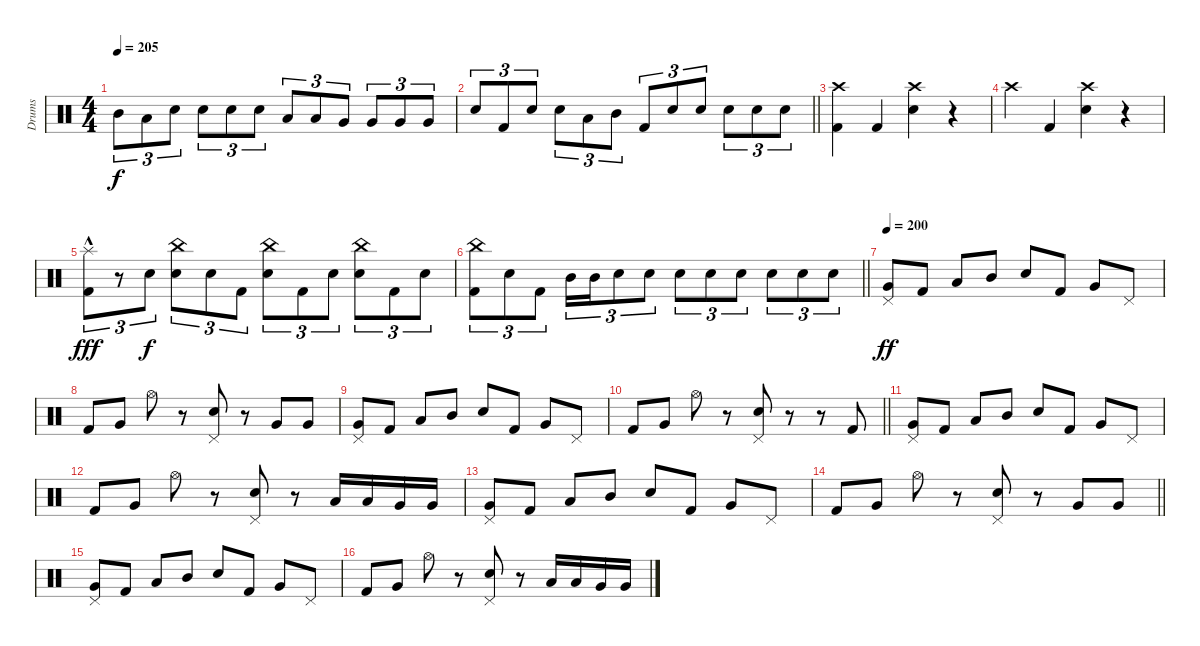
\track ("Drums" "Drums") {instrument percussion}
\staff {score}
\articulation defaults
\ts (4 4)
\tempo 205
\clef neutral
\ks c "Mid Tom (hit)".8{tu (3 2) dy f} "Low Tom (hit)".8{tu (3 2)} "Electric Snare (hit)".8{tu (3 2)} "Electric Snare (hit)".8{tu (3 2)} "Electric Snare (hit)".8{tu (3 2)} "Electric Snare (hit)".8{tu (3 2)} "Low Tom (hit)".8{tu (3 2)} "Low Tom (hit)".8{tu (3 2)} "Very Low Tom (hit)".8{tu (3 2)} "Very Low Tom (hit)".8{tu (3 2)} "Very Low Tom (hit)".8{tu (3 2)} "Very Low Tom (hit)".8{tu (3 2)}
|
\barLineRight lightlight "Electric Snare (hit)".8{tu (3 2)} "Kick (hit) 2".8{tu (3 2)} "Electric Snare (hit)".8{tu (3 2)} "Electric Snare (hit)".8{tu (3 2)} "Low Tom (hit)".8{tu (3 2)} "Mid Tom (hit)".8{tu (3 2)} "Kick (hit) 2".8{tu (3 2)} "Electric Snare (hit)".8{tu (3 2)} "Electric Snare (hit)".8{tu (3 2)} "Electric Snare (hit)".8{tu (3 2)} "Electric Snare (hit)".8{tu (3 2)} "Electric Snare (hit)".8{tu (3 2)}
|
("Crash high (hit)" "Kick (hit) 2").4 "Kick (hit) 2".4 ("Crash high (hit)" "Electric Snare (hit)").4 r.4 |
"Crash high (hit)".4 "Kick (hit) 2".4 ("Crash high (hit)" "Electric Snare (hit)").4 r.4 |
("Splash (hit)"{hac} "Kick (hit) 2").8{tu (3 2) dy fff} r.8{tu (3 2)} "Electric Snare (hit)".8{tu (3 2) dy f} ("China (hit)" "Electric Snare (hit)").8{tu (3 2)} "Electric Snare (hit)".8{tu (3 2)} "Kick (hit) 2".8{tu (3 2)} ("China (hit)" "Electric Snare (hit)").8{tu (3 2)} "Kick (hit) 2".8{tu (3 2)} "Electric Snare (hit)".8{tu (3 2)} ("China (hit)" "Electric Snare (hit)").8{tu (3 2)} "Kick (hit) 2".8{tu (3 2)} "Electric Snare (hit)".8{tu (3 2)} |
\barLineRight lightlight
("China (hit)" "Kick (hit) 2").8{tu (3 2)} "Electric Snare (hit)".8{tu (3 2)} "Kick (hit) 2".8{tu (3 2)} "Mid Tom (hit)".16{tu (3 2)} "Mid Tom (hit)".16{tu (3 2)} "Electric Snare (hit)".8{tu (3 2)} "Electric Snare (hit)".8{tu (3 2)} "Electric Snare (hit)".8{tu (3 2)} "Electric Snare (hit)".8{tu (3 2)} "Electric Snare (hit)".8{tu (3 2)} "Electric Snare (hit)".8{tu (3 2)} "Electric Snare (hit)".8{tu (3 2)} "Electric Snare (hit)".8{tu (3 2)} |
\tempo 200
("Pedal Hi-Hat (hit)" "Very Low Tom (hit)").8{dy ff} "Kick (hit) 2".8 "Low Tom (hit)".8 "Mid Tom (hit)".8 "Electric Snare (hit)".8 "Kick (hit) 2".8 "Very Low Tom (hit)".8 "Pedal Hi-Hat (hit)".8 |
"Kick (hit) 2".8 "Very Low Tom (hit)".8 "Hi-Hat (open)".8 r.8 ("Pedal Hi-Hat (hit)" "Electric Snare (hit)").8 r.8 "Very Low Tom (hit)".8 "Very Low Tom (hit)".8 |
("Pedal Hi-Hat (hit)" "Very Low Tom (hit)").8 "Kick (hit) 2".8 "Low Tom (hit)".8 "Mid Tom (hit)".8 "Electric Snare (hit)".8 "Kick (hit) 2".8 "Very Low Tom (hit)".8 "Pedal Hi-Hat (hit)".8 |
\barLineRight lightlight "Kick (hit) 2".8 "Very Low Tom (hit)".8 "Hi-Hat (open)".8
r.8 ("Pedal Hi-Hat (hit)" "Electric Snare (hit)").8 r.8 r.8 "Kick (hit) 2".8 |
("Pedal Hi-Hat (hit)" "Very Low Tom (hit)").8 "Kick (hit) 2".8 "Low Tom (hit)".8 "Mid Tom (hit)".8 "Electric Snare (hit)".8 "Kick (hit) 2".8 "Very Low Tom (hit)".8 "Pedal Hi-Hat (hit)".8 |
"Kick (hit) 2".8 "Very Low Tom (hit)".8 "Hi-Hat (open)".8 r.8 ("Pedal Hi-Hat (hit)" "Electric Snare (hit)").8 r.8 "Low Tom (hit)".16 "Low Tom (hit)".16 "Very Low Tom (hit)".16 "Very Low Tom (hit)".16 |
("Pedal Hi-Hat (hit)" "Very Low Tom (hit)").8 "Kick (hit) 2".8 "Low Tom (hit)".8 "Mid Tom (hit)".8 "Electric Snare (hit)".8 "Kick (hit) 2".8 "Very Low Tom (hit)".8 "Pedal Hi-Hat (hit)".8 |
\barLineRight lightlight "Kick (hit) 2".8 "Very Low Tom (hit)".8 "Hi-Hat (open)".8
r.8 ("Pedal Hi-Hat (hit)" "Electric Snare (hit)").8 r.8 "Very Low Tom (hit)".8 "Very Low Tom (hit)".8 |
("Pedal Hi-Hat (hit)" "Very Low Tom (hit)").8 "Kick (hit) 2".8 "Low Tom (hit)".8 "Mid Tom (hit)".8 "Electric Snare (hit)".8 "Kick (hit) 2".8 "Very Low Tom (hit)".8 "Pedal Hi-Hat (hit)".8 |
"Kick (hit) 2".8 "Very Low Tom (hit)".8 "Hi-Hat (open)".8 r.8 ("Pedal Hi-Hat (hit)" "Electric Snare (hit)").8 r.8 "Low Tom (hit)".16 "Low Tom (hit)".16 "Very Low Tom (hit)".16 "Very Low Tom (hit)".16
